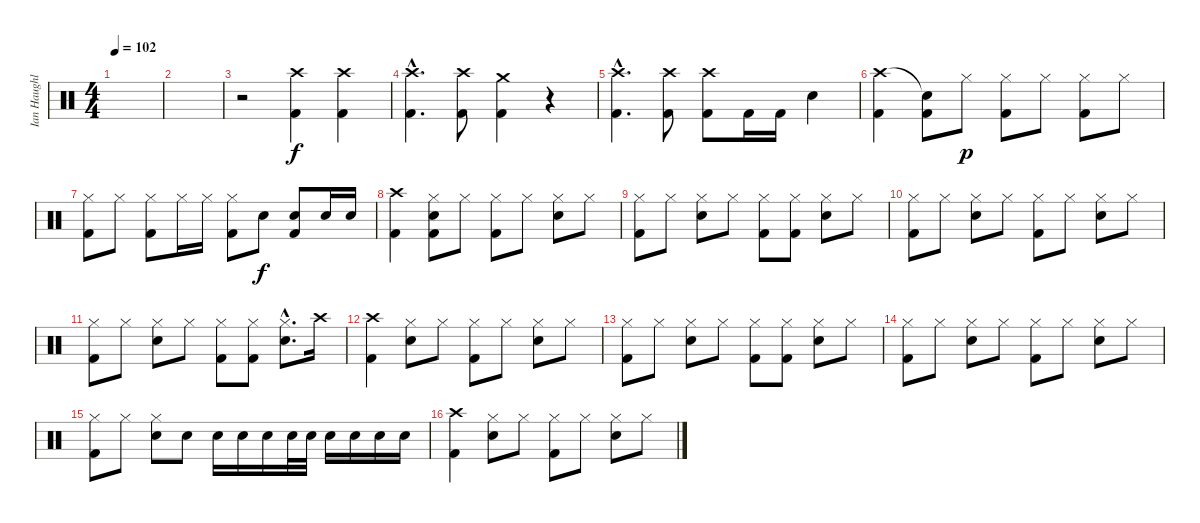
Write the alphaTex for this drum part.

\track ("Ian Haughland" "Ian Haughl") {instrument percussion}
\staff {score}
\articulation defaults
\ts (4 4)
\tempo 102
\clef neutral
\ks c
|
|
r.2 ("Kick (hit) 2" "Crash high (hit)").4 ("Kick (hit) 2" "Crash high (hit)").4 |
("Kick (hit) 2"{hac} "Crash high (hit)"{hac}).4{d} ("Kick (hit) 2" "Crash high (hit)").8 ("Kick (hit) 2" "Crash medium (hit)").4 r.4 |
("Kick (hit) 2"{hac} "Crash high (hit)"{hac}).4{d} ("Kick (hit) 2" "Crash high (hit)").8 ("Kick (hit) 2" "Crash high (hit)").8 "Kick (hit) 2".16 "Kick (hit) 2".16 "Snare (hit) 2".4 |
("Kick (hit) 2" "Crash high (hit)").4 ("Kick (hit) 2" "Snare (hit)"{t}).8 "Hi-Hat (closed)".8{dy p} ("Kick (hit) 2" "Hi-Hat (closed)").8 "Hi-Hat (closed)".8 ("Kick (hit) 2" "Hi-Hat (closed)").8 "Hi-Hat (closed)".8 |
("Kick (hit) 2" "Hi-Hat (closed)").8 "Hi-Hat (closed)".8 ("Kick (hit) 2" "Hi-Hat (closed)").8 "Hi-Hat (closed)".16 "Hi-Hat (closed)".16 ("Kick (hit) 2" "Hi-Hat (closed)").8 "Snare (hit) 2".8{dy f} ("Kick (hit) 2" "Snare (hit) 2").8 "Snare (hit) 2".16 "Snare (hit) 2".16 |
("Kick (hit) 2" "Crash high (hit)").4 ("Kick (hit) 2" "Hi-Hat (closed)" "Snare (hit) 2").8 "Hi-Hat (closed)".8 ("Kick (hit) 2" "Hi-Hat (closed)").8 "Hi-Hat (closed)".8 ("Hi-Hat (closed)" "Snare (hit) 2").8 "Hi-Hat (closed)".8 |
("Kick (hit) 2" "Hi-Hat (closed)").8 "Hi-Hat (closed)".8 ("Hi-Hat (closed)" "Snare (hit) 2").8 "Hi-Hat (closed)".8 ("Kick (hit) 2" "Hi-Hat (closed)").8 ("Kick (hit) 2" "Hi-Hat (closed)").8 ("Hi-Hat (closed)" "Snare (hit) 2").8 "Hi-Hat (closed)".8 |
("Kick (hit) 2" "Hi-Hat (closed)").8 "Hi-Hat (closed)".8 ("Hi-Hat (closed)" "Snare (hit) 2").8 "Hi-Hat (closed)".8 ("Kick (hit) 2" "Hi-Hat (closed)").8 "Hi-Hat (closed)".8 ("Hi-Hat (closed)" "Snare (hit) 2").8 "Hi-Hat (closed)".8 |
("Kick (hit) 2" "Hi-Hat (closed)").8 "Hi-Hat (closed)".8 ("Hi-Hat (closed)" "Snare (hit) 2").8 "Hi-Hat (closed)".8 ("Kick (hit) 2" "Hi-Hat (closed)").8 ("Kick (hit) 2" "Hi-Hat (closed)").8 ("Hi-Hat (closed)"{hac} "Snare (hit) 2"{hac}).8{d} "Crash high (hit)".16 |
("Kick (hit) 2" "Crash high (hit)").4 ("Hi-Hat (closed)" "Snare (hit) 2").8 "Hi-Hat (closed)".8 ("Hi-Hat (closed)" "Kick (hit) 2").8 "Hi-Hat (closed)".8 ("Hi-Hat (closed)" "Snare (hit) 2").8 "Hi-Hat (closed)".8 |
("Hi-Hat (closed)" "Kick (hit) 2").8 "Hi-Hat (closed)".8 ("Hi-Hat (closed)" "Snare (hit) 2").8 "Hi-Hat (closed)".8 ("Hi-Hat (closed)" "Kick (hit) 2").8 ("Hi-Hat (closed)" "Kick (hit) 2").8 ("Hi-Hat (closed)" "Snare (hit) 2").8 "Hi-Hat (closed)".8 |
("Hi-Hat (closed)" "Kick (hit) 2").8 "Hi-Hat (closed)".8 ("Hi-Hat (closed)" "Snare (hit) 2").8 "Hi-Hat (closed)".8 ("Hi-Hat (closed)" "Kick (hit) 2").8 "Hi-Hat (closed)".8 ("Hi-Hat (closed)" "Snare (hit) 2").8 "Hi-Hat (closed)".8 |
("Hi-Hat (closed)" "Kick (hit) 2").8 "Hi-Hat (closed)".8 ("Hi-Hat (closed)" "Snare (hit) 2").8 "Snare (hit) 2".8 "Snare (hit) 2".16 "Snare (hit) 2".16 "Snare (hit) 2".16 "Snare (hit) 2".32 "Snare (hit) 2".32 "Snare (hit) 2".16 "Snare (hit) 2".16 "Snare (hit) 2".16 "Snare (hit) 2".16 |
("Crash high (hit)" "Kick (hit) 2").4 ("Hi-Hat (closed)" "Snare (hit) 2").8 "Hi-Hat (closed)".8 ("Hi-Hat (closed)" "Kick (hit) 2").8 "Hi-Hat (closed)".8 ("Hi-Hat (closed)" "Snare (hit) 2").8 "Hi-Hat (closed)".8
